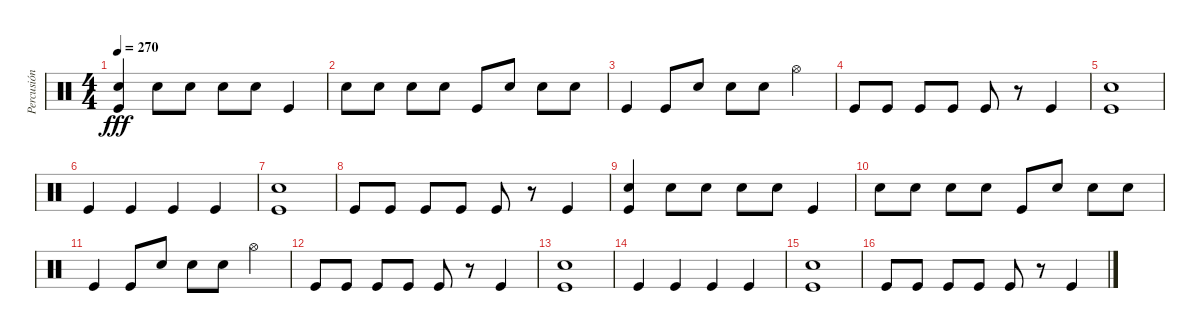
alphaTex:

\track ("Percusión" "Percusión") {instrument percussion}
\staff {score}
\articulation defaults
\ts (4 4)
\tempo 270
\clef neutral
\ks c
("Snare (hit) 2" "Kick (hit)").4{dy fff} "Snare (hit) 2".8 "Snare (hit) 2".8 "Snare (hit) 2".8 "Snare (hit) 2".8 "Kick (hit)".4 |
"Snare (hit) 2".8 "Snare (hit) 2".8 "Snare (hit) 2".8 "Snare (hit) 2".8 "Kick (hit)".8 "Snare (hit) 2".8 "Snare (hit) 2".8 "Snare (hit) 2".8 |
"Kick (hit)".4 "Kick (hit)".8 "Snare (hit) 2".8 "Snare (hit) 2".8 "Snare (hit) 2".8 "Hi-Hat (open)".4 |
"Kick (hit)".8 "Kick (hit)".8 "Kick (hit)".8 "Kick (hit)".8 "Kick (hit)".8 r.8 "Kick (hit)".4 |
("Snare (hit) 2" "Kick (hit)").1 |
"Kick (hit)".4 "Kick (hit)".4 "Kick (hit)".4 "Kick (hit)".4 |
("Snare (hit) 2" "Kick (hit)").1 |
"Kick (hit)".8 "Kick (hit)".8 "Kick (hit)".8 "Kick (hit)".8 "Kick (hit)".8 r.8 "Kick (hit)".4 |
("Snare (hit) 2" "Kick (hit)").4 "Snare (hit) 2".8 "Snare (hit) 2".8 "Snare (hit) 2".8 "Snare (hit) 2".8 "Kick (hit)".4 |
"Snare (hit) 2".8 "Snare (hit) 2".8 "Snare (hit) 2".8 "Snare (hit) 2".8 "Kick (hit)".8 "Snare (hit) 2".8 "Snare (hit) 2".8 "Snare (hit) 2".8 |
"Kick (hit)".4 "Kick (hit)".8 "Snare (hit) 2".8 "Snare (hit) 2".8 "Snare (hit) 2".8 "Hi-Hat (open)".4 |
"Kick (hit)".8 "Kick (hit)".8 "Kick (hit)".8 "Kick (hit)".8 "Kick (hit)".8 r.8 "Kick (hit)".4 |
("Snare (hit) 2" "Kick (hit)").1 |
"Kick (hit)".4 "Kick (hit)".4 "Kick (hit)".4 "Kick (hit)".4 |
("Snare (hit) 2" "Kick (hit)").1 |
"Kick (hit)".8 "Kick (hit)".8 "Kick (hit)".8 "Kick (hit)".8 "Kick (hit)".8 r.8 "Kick (hit)".4
